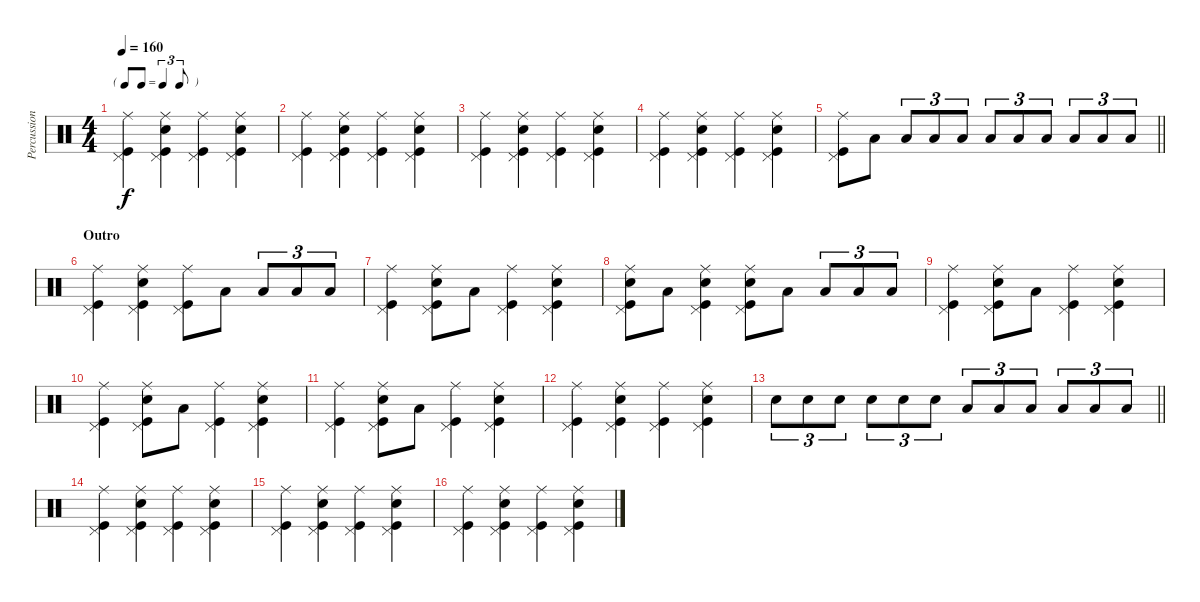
\track ("Percussion" "Percussion") {instrument percussion}
\staff {score}
\articulation defaults
\ts (4 4)
\tf triplet8th
\tempo 160
\clef neutral
\ks c
("Ride (middle)" "Pedal Hi-Hat (hit)" "Kick (hit)").4{dy f} ("Ride (middle)" "Pedal Hi-Hat (hit)" "Kick (hit)" "Snare (hit) 2").4 ("Ride (middle)" "Pedal Hi-Hat (hit)" "Kick (hit)").4 ("Ride (middle)" "Pedal Hi-Hat (hit)" "Kick (hit)" "Snare (hit) 2").4 |
("Ride (middle)" "Pedal Hi-Hat (hit)" "Kick (hit)").4 ("Ride (middle)" "Pedal Hi-Hat (hit)" "Kick (hit)" "Snare (hit) 2").4 ("Ride (middle)" "Pedal Hi-Hat (hit)" "Kick (hit)").4 ("Ride (middle)" "Pedal Hi-Hat (hit)" "Kick (hit)" "Snare (hit) 2").4 |
("Ride (middle)" "Pedal Hi-Hat (hit)" "Kick (hit)").4 ("Ride (middle)" "Pedal Hi-Hat (hit)" "Kick (hit)" "Snare (hit) 2").4 ("Ride (middle)" "Pedal Hi-Hat (hit)" "Kick (hit)").4 ("Ride (middle)" "Pedal Hi-Hat (hit)" "Kick (hit)" "Snare (hit) 2").4 |
("Ride (middle)" "Pedal Hi-Hat (hit)" "Kick (hit)").4 ("Ride (middle)" "Pedal Hi-Hat (hit)" "Kick (hit)" "Snare (hit) 2").4 ("Ride (middle)" "Pedal Hi-Hat (hit)" "Kick (hit)").4 ("Ride (middle)" "Pedal Hi-Hat (hit)" "Kick (hit)" "Snare (hit) 2").4 |
\barLineRight lightlight
("Ride (middle)" "Pedal Hi-Hat (hit)" "Kick (hit)").8 "Low Floor Tom (hit)".8 "Low Floor Tom (hit)".8{tu (3 2)} "Low Floor Tom (hit)".8{tu (3 2)} "Low Floor Tom (hit)".8{tu (3 2)} "Low Floor Tom (hit)".8{tu (3 2)} "Low Floor Tom (hit)".8{tu (3 2)} "Low Floor Tom (hit)".8{tu (3 2)} "Low Floor Tom (hit)".8{tu (3 2)} "Low Floor Tom (hit)".8{tu (3 2)} "Low Floor Tom (hit)".8{tu (3 2)} |
\section ("" "Outro")
("Ride (middle)" "Pedal Hi-Hat (hit)" "Kick (hit)").4 ("Ride (middle)" "Pedal Hi-Hat (hit)" "Kick (hit)" "Snare (hit) 2").4 ("Ride (middle)" "Pedal Hi-Hat (hit)" "Kick (hit)").8 "Low Floor Tom (hit)".8 "Low Floor Tom (hit)".8{tu (3 2)} "Low Floor Tom (hit)".8{tu (3 2)} "Low Floor Tom (hit)".8{tu (3 2)} |
("Ride (middle)" "Pedal Hi-Hat (hit)" "Kick (hit)").4 ("Ride (middle)" "Pedal Hi-Hat (hit)" "Kick (hit)" "Snare (hit) 2").8 "Low Floor Tom (hit)".8 ("Ride (middle)" "Pedal Hi-Hat (hit)" "Kick (hit)").4 ("Ride (middle)" "Pedal Hi-Hat (hit)" "Kick (hit)" "Snare (hit) 2").4 |
("Ride (middle)" "Pedal Hi-Hat (hit)" "Kick (hit)" "Snare (hit) 2").8 "Low Floor Tom (hit)".8 ("Ride (middle)" "Pedal Hi-Hat (hit)" "Kick (hit)" "Snare (hit) 2").4 ("Ride (middle)" "Pedal Hi-Hat (hit)" "Kick (hit)" "Snare (hit) 2").8 "Low Floor Tom (hit)".8 "Low Floor Tom (hit)".8{tu (3 2)} "Low Floor Tom (hit)".8{tu (3 2)} "Low Floor Tom (hit)".8{tu (3 2)} |
("Ride (middle)" "Pedal Hi-Hat (hit)" "Kick (hit)").4 ("Ride (middle)" "Pedal Hi-Hat (hit)" "Kick (hit)" "Snare (hit) 2").8 "Low Floor Tom (hit)".8 ("Ride (middle)" "Pedal Hi-Hat (hit)" "Kick (hit)").4 ("Ride (middle)" "Pedal Hi-Hat (hit)" "Kick (hit)" "Snare (hit) 2").4 |
("Ride (middle)" "Pedal Hi-Hat (hit)" "Kick (hit)").4 ("Ride (middle)" "Pedal Hi-Hat (hit)" "Kick (hit)" "Snare (hit) 2").8 "Low Floor Tom (hit)".8 ("Ride (middle)" "Pedal Hi-Hat (hit)" "Kick (hit)").4 ("Ride (middle)" "Pedal Hi-Hat (hit)" "Kick (hit)" "Snare (hit) 2").4 |
("Ride (middle)" "Pedal Hi-Hat (hit)" "Kick (hit)").4 ("Ride (middle)" "Pedal Hi-Hat (hit)" "Kick (hit)" "Snare (hit) 2").8 "Low Floor Tom (hit)".8 ("Ride (middle)" "Pedal Hi-Hat (hit)" "Kick (hit)").4 ("Ride (middle)" "Pedal Hi-Hat (hit)" "Kick (hit)" "Snare (hit) 2").4 |
("Ride (middle)" "Pedal Hi-Hat (hit)" "Kick (hit)").4 ("Ride (middle)" "Pedal Hi-Hat (hit)" "Kick (hit)" "Snare (hit) 2").4 ("Ride (middle)" "Pedal Hi-Hat (hit)" "Kick (hit)").4 ("Ride (middle)" "Pedal Hi-Hat (hit)" "Kick (hit)" "Snare (hit) 2").4 |
\barLineRight lightlight "Snare (hit) 2".8{tu (3 2)} "Snare (hit) 2".8{tu (3 2)} "Snare (hit) 2".8{tu (3 2)} "Snare (hit) 2".8{tu (3 2)} "Snare (hit) 2".8{tu (3 2)} "Snare (hit) 2".8{tu (3 2)} "Low Floor Tom (hit)".8{tu (3 2)} "Low Floor Tom (hit)".8{tu (3 2)} "Low Floor Tom (hit)".8{tu (3 2)} "Low Floor Tom (hit)".8{tu (3 2)} "Low Floor Tom (hit)".8{tu (3 2)} "Low Floor Tom (hit)".8{tu (3 2)}
|
("Ride (middle)" "Pedal Hi-Hat (hit)" "Kick (hit)").4 ("Ride (middle)" "Pedal Hi-Hat (hit)" "Kick (hit)" "Snare (hit) 2").4 ("Ride (middle)" "Pedal Hi-Hat (hit)" "Kick (hit)").4 ("Ride (middle)" "Pedal Hi-Hat (hit)" "Kick (hit)" "Snare (hit) 2").4 |
("Ride (middle)" "Pedal Hi-Hat (hit)" "Kick (hit)").4 ("Ride (middle)" "Pedal Hi-Hat (hit)" "Kick (hit)" "Snare (hit) 2").4 ("Ride (middle)" "Pedal Hi-Hat (hit)" "Kick (hit)").4 ("Ride (middle)" "Pedal Hi-Hat (hit)" "Kick (hit)" "Snare (hit) 2").4 |
("Ride (middle)" "Pedal Hi-Hat (hit)" "Kick (hit)").4 ("Ride (middle)" "Pedal Hi-Hat (hit)" "Kick (hit)" "Snare (hit) 2").4 ("Ride (middle)" "Pedal Hi-Hat (hit)" "Kick (hit)").4 ("Ride (middle)" "Pedal Hi-Hat (hit)" "Kick (hit)" "Snare (hit) 2").4
